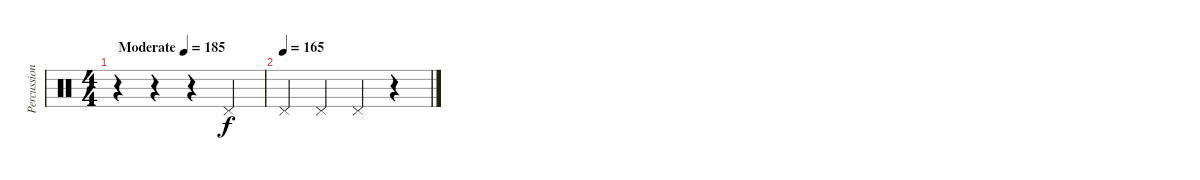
\track ("Percussion" "Percussion") {instrument percussion}
\staff {score}
\articulation defaults
\ts (4 4)
\tempo (185 "Moderate")
\clef neutral
\ks c
r.4{dy f} r.4 r.4 "Pedal Hi-Hat (hit)".4 |
\tempo (165)
"Pedal Hi-Hat (hit)".4 "Pedal Hi-Hat (hit)".4 "Pedal Hi-Hat (hit)".4 r.4
